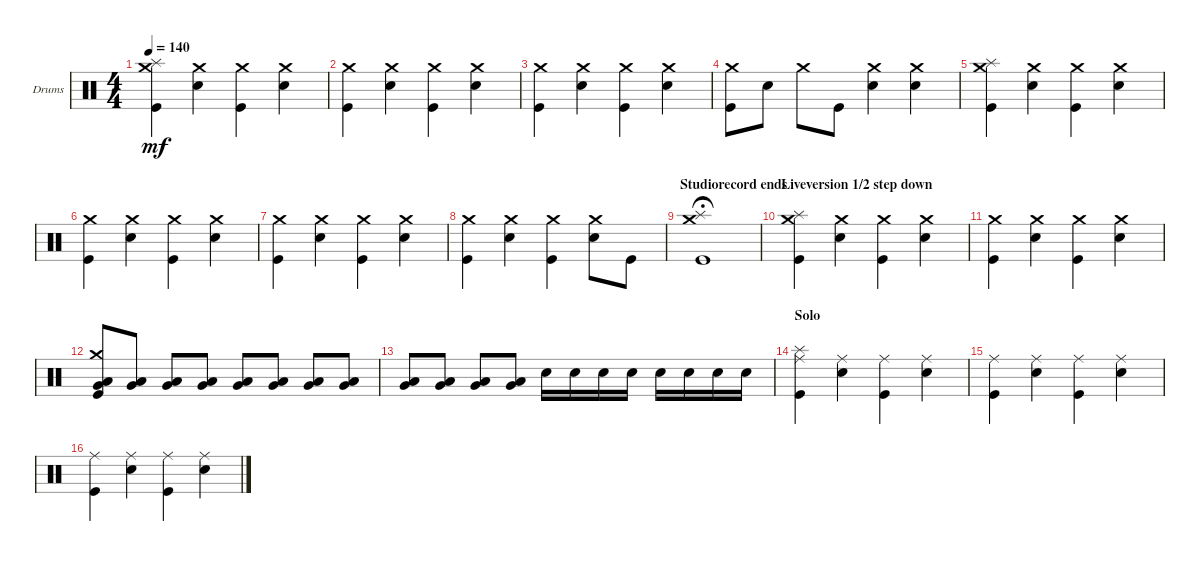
\defaultSystemsLayout 4
\bracketExtendMode groupsimilarinstruments
\firstSystemTrackNameOrientation horizontal
\otherSystemsTrackNameOrientation horizontal
\track ("Drumkit" "Drums") {instrument percussion}
\staff {score}
\articulation defaults
\ts (4 4)
\tempo 140
\clef neutral
\ks c
("Splash (hit)" "Kick (hit)" "Crash medium (hit)").4{dy mf} ("Snare (hit) 2" "Crash medium (hit)").4 ("Kick (hit)" "Crash medium (hit)").4 ("Snare (hit) 2" "Crash medium (hit)").4 |
("Kick (hit)" "Crash medium (hit)").4 ("Snare (hit) 2" "Crash medium (hit)").4 ("Kick (hit)" "Crash medium (hit)").4 ("Snare (hit) 2" "Crash medium (hit)").4 |
("Kick (hit)" "Crash medium (hit)").4 ("Snare (hit) 2" "Crash medium (hit)").4 ("Kick (hit)" "Crash medium (hit)").4 ("Snare (hit) 2" "Crash medium (hit)").4 |
("Kick (hit)" "Crash medium (hit)").8 "Snare (hit) 2".8 "Crash medium (hit)".8 "Kick (hit)".8 ("Snare (hit) 2" "Crash medium (hit)").4 ("Snare (hit) 2" "Crash medium (hit)").4 |
("Splash (hit)" "Kick (hit)" "Crash medium (hit)").4 ("Snare (hit) 2" "Crash medium (hit)").4 ("Kick (hit)" "Crash medium (hit)").4 ("Snare (hit) 2" "Crash medium (hit)").4 |
("Kick (hit)" "Crash medium (hit)").4 ("Snare (hit) 2" "Crash medium (hit)").4 ("Kick (hit)" "Crash medium (hit)").4 ("Snare (hit) 2" "Crash medium (hit)").4 |
("Kick (hit)" "Crash medium (hit)").4 ("Snare (hit) 2" "Crash medium (hit)").4 ("Kick (hit)" "Crash medium (hit)").4 ("Snare (hit) 2" "Crash medium (hit)").4 |
("Kick (hit)" "Crash medium (hit)").4 ("Snare (hit) 2" "Crash medium (hit)").4 ("Kick (hit)" "Crash medium (hit)").4 ("Snare (hit) 2" "Crash medium (hit)").8 "Kick (hit)".8 |
\section ("" "Studiorecord ends")
\scale
0.208358 ("Splash (hit)" "Kick (hit)" "Crash medium (hit)").1{fermata (medium 1)} |
\section ("" "Liveversion 1/2 step down")
\scale
0.26501 ("Splash (hit)" "Kick (hit)" "Crash medium (hit)").4 ("Snare (hit) 2" "Crash medium (hit)").4 ("Kick (hit)" "Crash medium (hit)").4 ("Snare (hit) 2" "Crash medium (hit)").4 |
\scale
0.264041 ("Kick (hit)" "Crash medium (hit)").4 ("Snare (hit) 2" "Crash medium (hit)").4 ("Kick (hit)" "Crash medium (hit)").4 ("Snare (hit) 2" "Crash medium (hit)").4 |
\scale
0.262644 ("Kick (hit)" "Very Low Tom (hit)" "Low Tom (hit)" "Crash medium (hit)").8 ("Very Low Tom (hit)" "Low Tom (hit)").8 ("Very Low Tom (hit)" "Low Tom (hit)").8 ("Very Low Tom (hit)" "Low Tom (hit)").8 ("Very Low Tom (hit)" "Low Tom (hit)").8 ("Very Low Tom (hit)" "Low Tom (hit)").8 ("Low Tom (hit)" "Very Low Tom (hit)").8 ("Low Tom (hit)" "Very Low Tom (hit)").8 |
("Very Low Tom (hit)" "Low Tom (hit)").8 ("Very Low Tom (hit)" "Low Tom (hit)").8 ("Very Low Tom (hit)" "Low Tom (hit)").8 ("Very Low Tom (hit)" "Low Tom (hit)").8 "Snare (hit) 2".16 "Snare (hit) 2".16 "Snare (hit) 2".16 "Snare (hit) 2".16 "Snare (hit) 2".16 "Snare (hit) 2".16 "Snare (hit) 2".16 "Snare (hit) 2".16 |
\section ("" "Solo")
("Splash (hit)" "Kick (hit)" "Ride (middle)").4 ("Snare (hit) 2" "Ride (middle)").4 ("Kick (hit)" "Ride (middle)").4 ("Snare (hit) 2" "Ride (middle)").4 |
("Kick (hit)" "Ride (middle)").4 ("Snare (hit) 2" "Ride (middle)").4 ("Kick (hit)" "Ride (middle)").4 ("Snare (hit) 2" "Ride (middle)").4 |
("Kick (hit)" "Ride (middle)").4 ("Snare (hit) 2" "Ride (middle)").4 ("Kick (hit)" "Ride (middle)").4 ("Snare (hit) 2" "Ride (middle)").4
